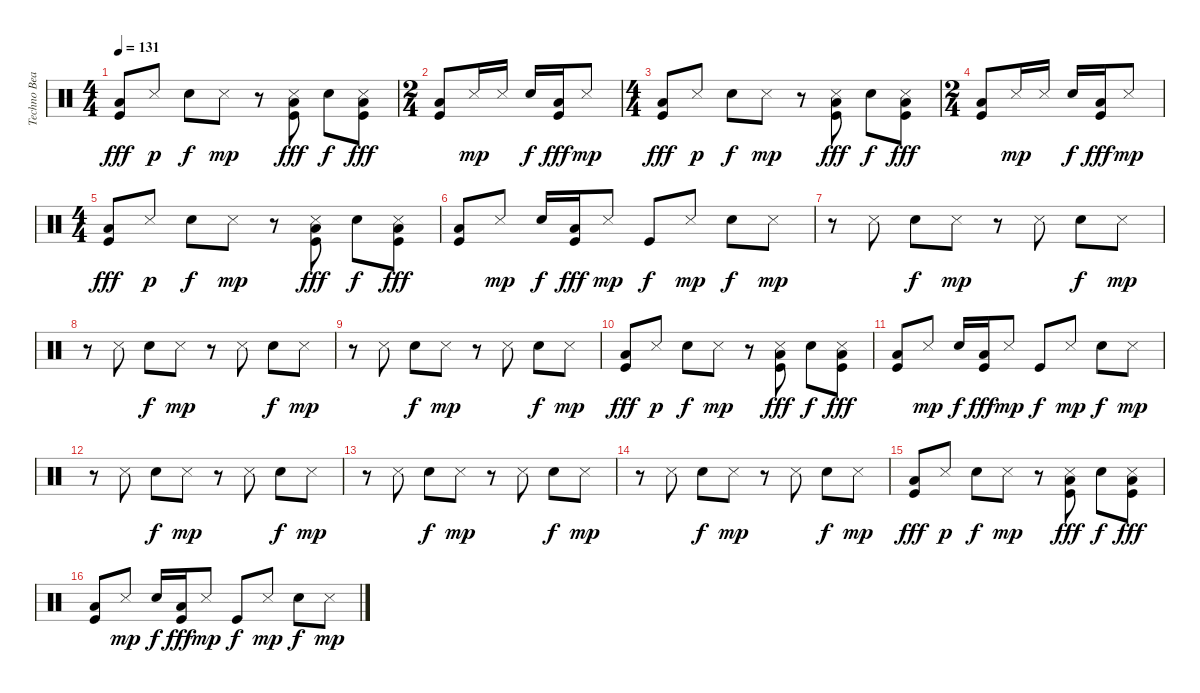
\track ("Techno Beat" "Techno Bea") {instrument percussion}
\staff {score}
\articulation defaults
\ts (4 4)
\tempo 131
\clef neutral
\ks c
("Low Tom (hit)" "Kick (hit)").8{dy fff} "Snare (side stick) 3".8{dy p} "Electric Snare (hit)".8{dy f} "Snare (side stick) 3".8{dy mp} r.8 ("Snare (side stick) 3" "Low Tom (hit)" "Kick (hit)").8{dy fff} "Electric Snare (hit)".8{dy f} ("Snare (side stick) 3" "Low Tom (hit)" "Kick (hit)").8{dy fff} |
\ts (2 4)
("Low Tom (hit)" "Kick (hit)").8 "Snare (side stick) 3".16{dy mp} "Snare (side stick) 3".16 "Electric Snare (hit)".16{dy f} ("Low Tom (hit)" "Kick (hit)").16{dy fff} "Snare (side stick) 3".8{dy mp} |
\ts (4 4)
("Low Tom (hit)" "Kick (hit)").8{dy fff} "Snare (side stick) 3".8{dy p} "Electric Snare (hit)".8{dy f} "Snare (side stick) 3".8{dy mp} r.8 ("Snare (side stick) 3" "Low Tom (hit)" "Kick (hit)").8{dy fff} "Electric Snare (hit)".8{dy f} ("Snare (side stick) 3" "Low Tom (hit)" "Kick (hit)").8{dy fff} |
\ts (2 4)
("Low Tom (hit)" "Kick (hit)").8 "Snare (side stick) 3".16{dy mp} "Snare (side stick) 3".16 "Electric Snare (hit)".16{dy f} ("Low Tom (hit)" "Kick (hit)").16{dy fff} "Snare (side stick) 3".8{dy mp} |
\ts (4 4)
("Low Tom (hit)" "Kick (hit)").8{dy fff} "Snare (side stick) 3".8{dy p} "Electric Snare (hit)".8{dy f} "Snare (side stick) 3".8{dy mp} r.8 ("Snare (side stick) 3" "Low Tom (hit)" "Kick (hit)").8{dy fff} "Electric Snare (hit)".8{dy f} ("Snare (side stick) 3" "Low Tom (hit)" "Kick (hit)").8{dy fff} |
("Low Tom (hit)" "Kick (hit)").8 "Snare (side stick) 3".8{dy mp} "Electric Snare (hit)".16{dy f} ("Low Tom (hit)" "Kick (hit)").16{dy fff} "Snare (side stick) 3".8{dy mp} "Kick (hit)".8{dy f} "Snare (side stick) 3".8{dy mp} "Electric Snare (hit)".8{dy f} "Snare (side stick) 3".8{dy mp} |
r.8 "Snare (side stick) 3".8 "Electric Snare (hit)".8{dy f} "Snare (side stick) 3".8{dy mp} r.8 "Snare (side stick) 3".8 "Electric Snare (hit)".8{dy f} "Snare (side stick) 3".8{dy mp} |
r.8 "Snare (side stick) 3".8 "Electric Snare (hit)".8{dy f} "Snare (side stick) 3".8{dy mp} r.8 "Snare (side stick) 3".8 "Electric Snare (hit)".8{dy f} "Snare (side stick) 3".8{dy mp} |
r.8 "Snare (side stick) 3".8 "Electric Snare (hit)".8{dy f} "Snare (side stick) 3".8{dy mp} r.8 "Snare (side stick) 3".8 "Electric Snare (hit)".8{dy f} "Snare (side stick) 3".8{dy mp} |
("Low Tom (hit)" "Kick (hit)").8{dy fff} "Snare (side stick) 3".8{dy p} "Electric Snare (hit)".8{dy f} "Snare (side stick) 3".8{dy mp} r.8 ("Snare (side stick) 3" "Low Tom (hit)" "Kick (hit)").8{dy fff} "Electric Snare (hit)".8{dy f} ("Snare (side stick) 3" "Low Tom (hit)" "Kick (hit)").8{dy fff} |
("Low Tom (hit)" "Kick (hit)").8 "Snare (side stick) 3".8{dy mp} "Electric Snare (hit)".16{dy f} ("Low Tom (hit)" "Kick (hit)").16{dy fff} "Snare (side stick) 3".8{dy mp} "Kick (hit)".8{dy f} "Snare (side stick) 3".8{dy mp} "Electric Snare (hit)".8{dy f} "Snare (side stick) 3".8{dy mp} |
r.8 "Snare (side stick) 3".8 "Electric Snare (hit)".8{dy f} "Snare (side stick) 3".8{dy mp} r.8 "Snare (side stick) 3".8 "Electric Snare (hit)".8{dy f} "Snare (side stick) 3".8{dy mp} |
r.8 "Snare (side stick) 3".8 "Electric Snare (hit)".8{dy f} "Snare (side stick) 3".8{dy mp} r.8 "Snare (side stick) 3".8 "Electric Snare (hit)".8{dy f} "Snare (side stick) 3".8{dy mp} |
r.8 "Snare (side stick) 3".8 "Electric Snare (hit)".8{dy f} "Snare (side stick) 3".8{dy mp} r.8 "Snare (side stick) 3".8 "Electric Snare (hit)".8{dy f} "Snare (side stick) 3".8{dy mp} |
("Low Tom (hit)" "Kick (hit)").8{dy fff} "Snare (side stick) 3".8{dy p} "Electric Snare (hit)".8{dy f} "Snare (side stick) 3".8{dy mp} r.8 ("Snare (side stick) 3" "Low Tom (hit)" "Kick (hit)").8{dy fff} "Electric Snare (hit)".8{dy f} ("Snare (side stick) 3" "Low Tom (hit)" "Kick (hit)").8{dy fff} |
("Low Tom (hit)" "Kick (hit)").8 "Snare (side stick) 3".8{dy mp} "Electric Snare (hit)".16{dy f} ("Low Tom (hit)" "Kick (hit)").16{dy fff} "Snare (side stick) 3".8{dy mp} "Kick (hit)".8{dy f} "Snare (side stick) 3".8{dy mp} "Electric Snare (hit)".8{dy f} "Snare (side stick) 3".8{dy mp}
